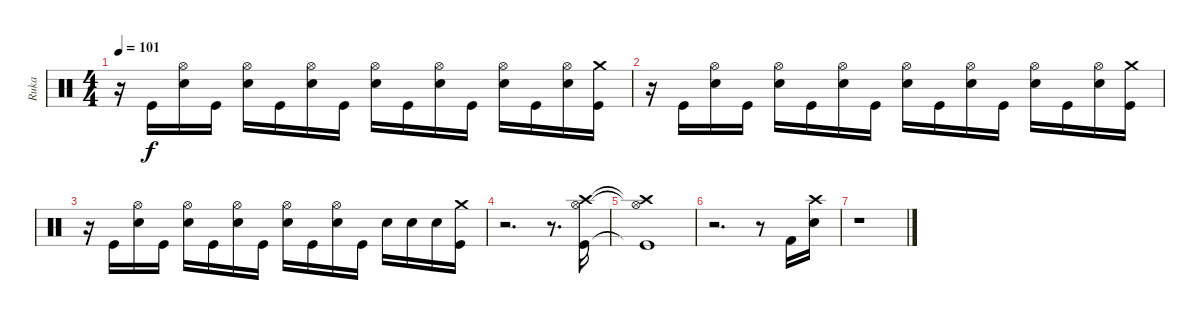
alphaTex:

\track ("Ruka" "Ruka") {instrument percussion}
\staff {score}
\articulation defaults
\ts (4 4)
\tempo 101
\clef neutral
\ks c
r.16{dy f} "Kick (hit)".16 ("Hi-Hat (open)" "Snare (hit) 2").16 "Kick (hit)".16 ("Hi-Hat (open)" "Snare (hit) 2").16 "Kick (hit)".16 ("Hi-Hat (open)" "Snare (hit) 2").16 "Kick (hit)".16 ("Hi-Hat (open)" "Snare (hit) 2").16 "Kick (hit)".16 ("Hi-Hat (open)" "Snare (hit) 2").16 "Kick (hit)".16 ("Hi-Hat (open)" "Snare (hit) 2").16 "Kick (hit)".16 ("Hi-Hat (open)" "Snare (hit) 2").16 ("Crash medium (hit)" "Kick (hit)").16 |
r.16 "Kick (hit)".16 ("Hi-Hat (open)" "Snare (hit) 2").16 "Kick (hit)".16 ("Hi-Hat (open)" "Snare (hit) 2").16 "Kick (hit)".16 ("Hi-Hat (open)" "Snare (hit) 2").16 "Kick (hit)".16 ("Hi-Hat (open)" "Snare (hit) 2").16 "Kick (hit)".16 ("Hi-Hat (open)" "Snare (hit) 2").16 "Kick (hit)".16 ("Hi-Hat (open)" "Snare (hit) 2").16 "Kick (hit)".16 ("Hi-Hat (open)" "Snare (hit) 2").16 ("Crash medium (hit)" "Kick (hit)").16 |
r.16 "Kick (hit)".16 ("Hi-Hat (open)" "Snare (hit) 2").16 "Kick (hit)".16 ("Hi-Hat (open)" "Snare (hit) 2").16 "Kick (hit)".16 ("Hi-Hat (open)" "Snare (hit) 2").16 "Kick (hit)".16 ("Hi-Hat (open)" "Snare (hit) 2").16 "Kick (hit)".16 ("Hi-Hat (open)" "Snare (hit) 2").16 "Kick (hit)".16 "Snare (hit) 2".16 "Snare (hit) 2".16 "Snare (hit) 2".16 ("Crash medium (hit)" "Kick (hit)").16 |
r.2{d} r.8{d} ("Crash high (hit)" "Hi-Hat (open)" "Kick (hit)").16 |
("Crash high (hit)"{t} "Hi-Hat (open)"{t} "Kick (hit)"{t}).1 |
r.2{d} r.8 "Kick (hit) 2".16 ("Crash high (hit)" "Electric Snare (hit)").16 |
r.1
